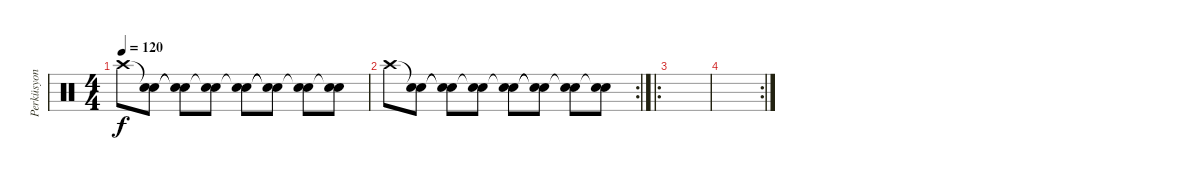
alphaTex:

\track ("Perküsyon" "Perküsyon") {instrument percussion}
\staff {score}
\articulation defaults
\ts (4 4)
\tempo 120
\clef neutral
\ks c "Crash high (hit)".8{dy f}
("Snare (hit)"{t} "Snare (hit) 2").8 ("Snare (hit)"{t} "Electric Snare (hit)"{t}).8 ("Snare (hit)"{t} "Snare (hit) 2").8 ("Snare (hit)"{t} "Electric Snare (hit)").8 ("Snare (hit)"{t} "Snare (hit)"{t}).8 ("Snare (hit)"{t} "Electric Snare (hit)").8 ("Snare (hit)"{t} "Snare (hit) 2").8 |
\rc 2 "Crash high (hit)".8
("Snare (hit)"{t} "Snare (hit) 2").8 ("Snare (hit)"{t} "Electric Snare (hit)"{t}).8 ("Snare (hit)"{t} "Snare (hit) 2").8 ("Snare (hit)"{t} "Electric Snare (hit)").8 ("Snare (hit)"{t} "Snare (hit)"{t}).8 ("Snare (hit)"{t} "Electric Snare (hit)").8 ("Snare (hit)"{t} "Snare (hit) 2").8 |
\ro
|
\rc 2
